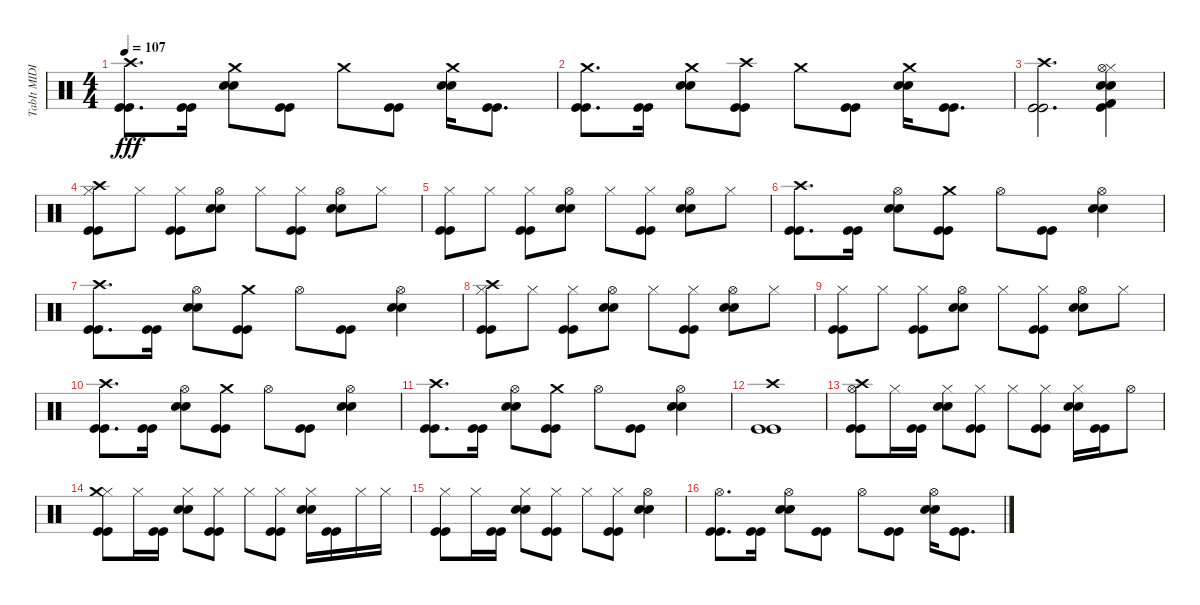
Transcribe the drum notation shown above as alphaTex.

\track ("TabIt MIDI - Track 5" "TabIt MIDI") {instrument percussion}
\staff {score}
\articulation defaults
\ts (4 4)
\tempo 107
\clef neutral
\ks c
("Kick (hit)" "Kick (hit)" "Crash high (hit)").8{d dy fff} ("Kick (hit)" "Kick (hit)").16 ("Snare (hit) 2" "Snare (hit) 2" "Crash medium (hit)").8 ("Kick (hit)" "Kick (hit)").8 "Crash medium (hit)".8 ("Kick (hit)" "Kick (hit)").8 ("Snare (hit) 2" "Snare (hit) 2" "Crash medium (hit)").16 ("Kick (hit)" "Kick (hit)").8{d} |
("Kick (hit)" "Kick (hit)" "Crash medium (hit)").8{d} ("Kick (hit)" "Kick (hit)").16 ("Snare (hit) 2" "Snare (hit) 2" "Crash medium (hit)").8 ("Kick (hit)" "Kick (hit)" "Crash high (hit)").8 "Crash medium (hit)".8 ("Kick (hit)" "Kick (hit)").8 ("Snare (hit) 2" "Snare (hit) 2" "Crash medium (hit)").16 ("Kick (hit)" "Kick (hit)").8{d} |
("Kick (hit)" "Kick (hit)" "Crash high (hit)").2{d} ("Kick (hit)" "Kick (hit) 2" "Electric Snare (hit)" "Electric Snare (hit)" "Hi-Hat (closed)" "Hi-Hat (open)").4 |
("Kick (hit)" "Kick (hit)" "Hi-Hat (closed)" "Crash high (hit)").8 "Hi-Hat (closed)".8 ("Kick (hit)" "Kick (hit)" "Hi-Hat (closed)").8 ("Snare (hit) 2" "Snare (hit) 2" "Hi-Hat (open)").8 "Hi-Hat (closed)".8 ("Kick (hit)" "Kick (hit)" "Hi-Hat (closed)").8 ("Snare (hit) 2" "Snare (hit) 2" "Hi-Hat (open)").8 "Hi-Hat (closed)".8 |
("Kick (hit)" "Kick (hit)" "Hi-Hat (closed)").8 "Hi-Hat (closed)".8 ("Kick (hit)" "Kick (hit)" "Hi-Hat (closed)").8 ("Snare (hit) 2" "Snare (hit) 2" "Hi-Hat (open)").8 "Hi-Hat (closed)".8 ("Kick (hit)" "Kick (hit)" "Hi-Hat (closed)").8 ("Snare (hit) 2" "Snare (hit) 2" "Hi-Hat (open)").8 "Hi-Hat (closed)".8 |
("Kick (hit)" "Kick (hit)" "Crash high (hit)").8{d} ("Kick (hit)" "Kick (hit)").16 ("Snare (hit) 2" "Snare (hit) 2" "Hi-Hat (open)").8 ("Kick (hit)" "Kick (hit)" "Crash medium (hit)").8 "Hi-Hat (open)".8 ("Kick (hit)" "Kick (hit)").8 ("Snare (hit) 2" "Snare (hit) 2" "Hi-Hat (open)").4 |
("Kick (hit)" "Kick (hit)" "Crash high (hit)").8{d} ("Kick (hit)" "Kick (hit)").16 ("Snare (hit) 2" "Snare (hit) 2" "Hi-Hat (open)").8 ("Kick (hit)" "Kick (hit)" "Crash medium (hit)").8 "Hi-Hat (open)".8 ("Kick (hit)" "Kick (hit)").8 ("Snare (hit) 2" "Snare (hit) 2" "Hi-Hat (open)").4 |
("Kick (hit)" "Kick (hit)" "Hi-Hat (closed)" "Crash high (hit)").8 "Hi-Hat (closed)".8 ("Kick (hit)" "Kick (hit)" "Hi-Hat (closed)").8 ("Snare (hit) 2" "Snare (hit) 2" "Hi-Hat (open)").8 "Hi-Hat (closed)".8 ("Kick (hit)" "Kick (hit)" "Hi-Hat (closed)").8 ("Snare (hit) 2" "Snare (hit) 2" "Hi-Hat (open)").8 "Hi-Hat (closed)".8 |
("Kick (hit)" "Kick (hit)" "Hi-Hat (closed)").8 "Hi-Hat (closed)".8 ("Kick (hit)" "Kick (hit)" "Hi-Hat (closed)").8 ("Snare (hit) 2" "Snare (hit) 2" "Hi-Hat (open)").8 "Hi-Hat (closed)".8 ("Kick (hit)" "Kick (hit)" "Hi-Hat (closed)").8 ("Snare (hit) 2" "Snare (hit) 2" "Hi-Hat (open)").8 "Hi-Hat (closed)".8 |
("Kick (hit)" "Kick (hit)" "Crash high (hit)").8{d} ("Kick (hit)" "Kick (hit)").16 ("Snare (hit) 2" "Snare (hit) 2" "Hi-Hat (open)").8 ("Kick (hit)" "Kick (hit)" "Crash medium (hit)").8 "Hi-Hat (open)".8 ("Kick (hit)" "Kick (hit)").8 ("Snare (hit) 2" "Snare (hit) 2" "Hi-Hat (open)").4 |
("Kick (hit)" "Kick (hit)" "Crash high (hit)").8{d} ("Kick (hit)" "Kick (hit)").16 ("Snare (hit) 2" "Snare (hit) 2" "Hi-Hat (open)").8 ("Kick (hit)" "Kick (hit)" "Crash medium (hit)").8 "Hi-Hat (open)".8 ("Kick (hit)" "Kick (hit)").8 ("Snare (hit) 2" "Snare (hit) 2" "Hi-Hat (open)").4 |
("Kick (hit)" "Kick (hit)" "Crash high (hit)").1 |
("Kick (hit)" "Kick (hit)" "Hi-Hat (open)" "Crash high (hit)").8 "Hi-Hat (closed)".16 ("Kick (hit)" "Kick (hit)").16 ("Snare (hit) 2" "Snare (hit) 2" "Hi-Hat (closed)").8 ("Kick (hit)" "Kick (hit)" "Hi-Hat (closed)").8 "Hi-Hat (closed)".8 ("Kick (hit)" "Kick (hit)" "Hi-Hat (closed)").8 ("Snare (hit) 2" "Snare (hit) 2" "Hi-Hat (closed)").16 ("Kick (hit)" "Kick (hit)").16 "Hi-Hat (open)".8 |
("Kick (hit)" "Kick (hit)" "Hi-Hat (closed)" "Crash medium (hit)").8 "Hi-Hat (closed)".16 ("Kick (hit)" "Kick (hit)").16 ("Snare (hit) 2" "Snare (hit) 2" "Hi-Hat (closed)").8 ("Kick (hit)" "Kick (hit)" "Hi-Hat (closed)").8 "Hi-Hat (closed)".8 ("Kick (hit)" "Kick (hit)" "Hi-Hat (closed)").8 ("Snare (hit) 2" "Snare (hit) 2" "Hi-Hat (closed)").16 ("Kick (hit)" "Kick (hit)").16 "Hi-Hat (closed)".16 "Hi-Hat (closed)".16 |
("Kick (hit)" "Kick (hit)" "Hi-Hat (closed)").8 "Hi-Hat (closed)".16 ("Kick (hit)" "Kick (hit)").16 ("Snare (hit) 2" "Snare (hit) 2" "Hi-Hat (closed)").8 ("Kick (hit)" "Kick (hit)" "Hi-Hat (closed)").8 "Hi-Hat (closed)".8 ("Kick (hit)" "Kick (hit)" "Hi-Hat (closed)").8 ("Snare (hit) 2" "Snare (hit) 2" "Hi-Hat (open)").4 |
("Kick (hit)" "Kick (hit)" "Hi-Hat (open)").8{d} ("Kick (hit)" "Kick (hit)").16 ("Snare (hit) 2" "Snare (hit) 2" "Hi-Hat (open)").8 ("Kick (hit)" "Kick (hit)").8 "Hi-Hat (open)".8 ("Kick (hit)" "Kick (hit)").8 ("Snare (hit) 2" "Snare (hit) 2" "Hi-Hat (open)").16 ("Kick (hit)" "Kick (hit)").8{d}
